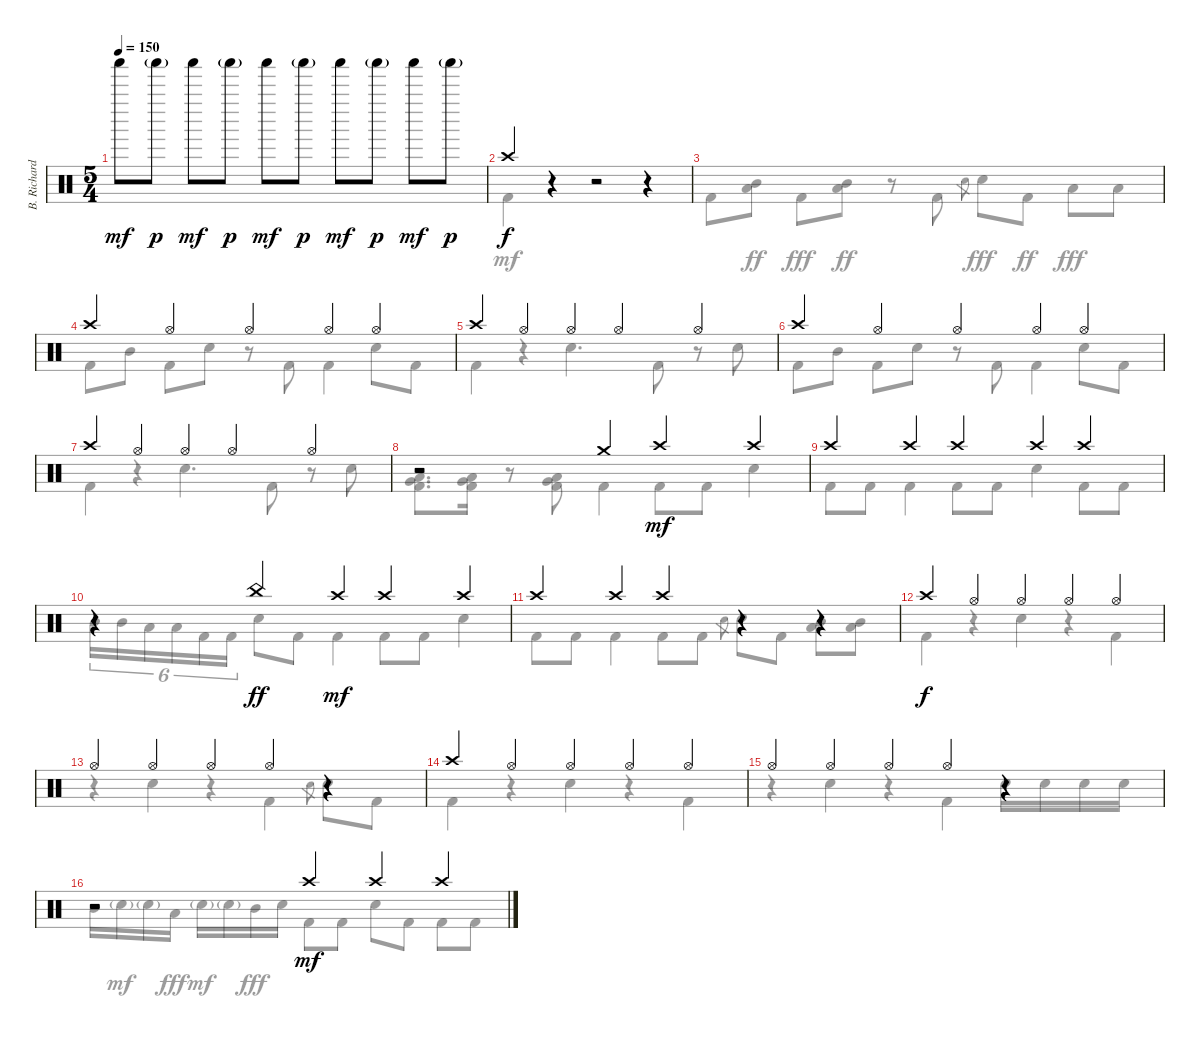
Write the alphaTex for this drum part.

\track ("B. Richardson Drums" "B. Richard") {instrument percussion}
\staff {score}
\articulation defaults
\voice
\ts (5 4)
\tempo 150
\clef neutral
\ks c "Shaker (hit)".8{dy mf} "Shaker (hit)"{g}.8{dy p} "Shaker (hit)".8{dy mf} "Shaker (hit)"{g}.8{dy p} "Shaker (hit)".8{dy mf} "Shaker (hit)"{g}.8{dy p} "Shaker (hit)".8{dy mf} "Shaker (hit)"{g}.8{dy p} "Shaker (hit)".8{dy mf} "Shaker (hit)"{g}.8{dy p}
|
"Crash high (hit)".4{dy f} r.4 r.2 r.4 |
|
"Crash high (hit)".4 "Hi-Hat (open)".4 "Hi-Hat (open)".4 "Hi-Hat (open)".4 "Hi-Hat (open)".4 |
"Crash high (hit)".4 "Hi-Hat (open)".4 "Hi-Hat (open)".4 "Hi-Hat (open)".4 "Hi-Hat (open)".4 |
"Crash high (hit)".4 "Hi-Hat (open)".4 "Hi-Hat (open)".4 "Hi-Hat (open)".4 "Hi-Hat (open)".4 |
"Crash high (hit)".4 "Hi-Hat (open)".4 "Hi-Hat (open)".4 "Hi-Hat (open)".4 "Hi-Hat (open)".4 |
r.2 "Crash medium (hit)".4 "Crash high (hit)".4{dy mf} "Crash high (hit)".4 |
"Crash high (hit)".4 "Crash high (hit)".4 "Crash high (hit)".4 "Crash high (hit)".4 "Crash high (hit)".4 |
r.4 "China (hit)".4{dy ff} "Crash high (hit)".4{dy mf} "Crash high (hit)".4 "Crash high (hit)".4 |
"Crash high (hit)".4 "Crash high (hit)".4 "Crash high (hit)".4 r.4 r.4 |
"Crash high (hit)".4{dy f} "Hi-Hat (open)".4 "Hi-Hat (open)".4 "Hi-Hat (open)".4 "Hi-Hat (open)".4 |
"Hi-Hat (open)".4 "Hi-Hat (open)".4 "Hi-Hat (open)".4 "Hi-Hat (open)".4 r.4 |
"Crash high (hit)".4 "Hi-Hat (open)".4 "Hi-Hat (open)".4 "Hi-Hat (open)".4 "Hi-Hat (open)".4 |
"Hi-Hat (open)".4 "Hi-Hat (open)".4 "Hi-Hat (open)".4 "Hi-Hat (open)".4 r.4 |
r.2 "Crash high (hit)".4{dy mf} "Crash high (hit)".4 "Crash high (hit)".4
\voice
\clef neutral
\ottava regular
\simile none
\ks c
|
"Kick (hit) 2".4 r.4 r.2 r.4 |
"Kick (hit) 2".8 ("Mid Tom (hit)" "Low Tom (hit)").8{dy ff} "Kick (hit) 2".8{dy fff} ("Mid Tom (hit)" "Low Tom (hit)").8{dy ff} r.8 "Kick (hit) 2".8 "Electric Snare (hit)".8{gr} "Electric Snare (hit)".8{dy fff} "Kick (hit) 2".8{dy ff} "Low Tom (hit)".8{dy fff} "Low Tom (hit)".8 |
"Kick (hit) 2".8 "Mid Tom (hit)".8 "Kick (hit) 2".8 "Electric Snare (hit)".8 r.8 "Kick (hit) 2".8 "Kick (hit) 2".4 "Electric Snare (hit)".8 "Kick (hit) 2".8 |
"Kick (hit) 2".4 r.4 "Electric Snare (hit)".4{d} "Kick (hit) 2".8 r.8 "Electric Snare (hit)".8 |
"Kick (hit) 2".8 "Mid Tom (hit)".8 "Kick (hit) 2".8 "Electric Snare (hit)".8 r.8 "Kick (hit) 2".8 "Kick (hit) 2".4 "Electric Snare (hit)".8 "Kick (hit) 2".8 |
"Kick (hit) 2".4 r.4 "Electric Snare (hit)".4{d} "Kick (hit) 2".8 r.8 "Electric Snare (hit)".8 |
("Low Tom (hit)" "Very Low Tom (hit)" "Kick (hit) 2").8{d} ("Low Tom (hit)" "Very Low Tom (hit)" "Kick (hit) 2").16 r.8 ("Low Tom (hit)" "Very Low Tom (hit)" "Kick (hit) 2").8 "Kick (hit) 2".4 "Kick (hit) 2".8 "Kick (hit) 2".8 "Electric Snare (hit)".4 |
"Kick (hit) 2".8 "Kick (hit) 2".8 "Kick (hit) 2".4 "Kick (hit) 2".8 "Kick (hit) 2".8 "Electric Snare (hit)".4 "Kick (hit) 2".8 "Kick (hit) 2".8 |
"Mid Tom (hit)".16{tu (6 4)} "Mid Tom (hit)".16{tu (6 4)} "Low Tom (hit)".16{tu (6 4)} "Low Tom (hit)".16{tu (6 4)} "Kick (hit) 2".16{tu (6 4)} "Kick (hit) 2".16{tu (6 4)} "Electric Snare (hit)".8 "Kick (hit) 2".8 "Kick (hit) 2".4 "Kick (hit) 2".8 "Kick (hit) 2".8 "Electric Snare (hit)".4 |
"Kick (hit) 2".8 "Kick (hit) 2".8 "Kick (hit) 2".4 "Kick (hit) 2".8 "Kick (hit) 2".8 "Electric Snare (hit)".8{gr} "Electric Snare (hit)".8 "Kick (hit) 2".8 ("Mid Tom (hit)" "Low Tom (hit)").8 ("Mid Tom (hit)" "Low Tom (hit)").8 |
"Kick (hit) 2".4 r.4 "Electric Snare (hit)".4 r.4 "Kick (hit) 2".4 |
r.4 "Electric Snare (hit)".4 r.4 "Kick (hit) 2".4 "Electric Snare (hit)".8{gr} "Electric Snare (hit)".8 "Kick (hit) 2".8 |
"Kick (hit) 2".4 r.4 "Electric Snare (hit)".4 r.4 "Kick (hit) 2".4 |
r.4 "Electric Snare (hit)".4 r.4 "Kick (hit) 2".4 "Electric Snare (hit)".16 "Electric Snare (hit)".16 "Electric Snare (hit)".16 "Electric Snare (hit)".16 |
"Mid Tom (hit)".16 "Electric Snare (hit)"{g}.16{dy mf} "Electric Snare (hit)"{g}.16 "Low Tom (hit)".16{dy fff} "Electric Snare (hit)"{g}.16{dy mf} "Electric Snare (hit)"{g}.16 "Mid Tom (hit)".16{dy fff} "Electric Snare (hit)".16 "Kick (hit) 2".8 "Kick (hit) 2".8 "Electric Snare (hit)".8 "Kick (hit) 2".8 "Kick (hit) 2".8 "Kick (hit) 2".8
